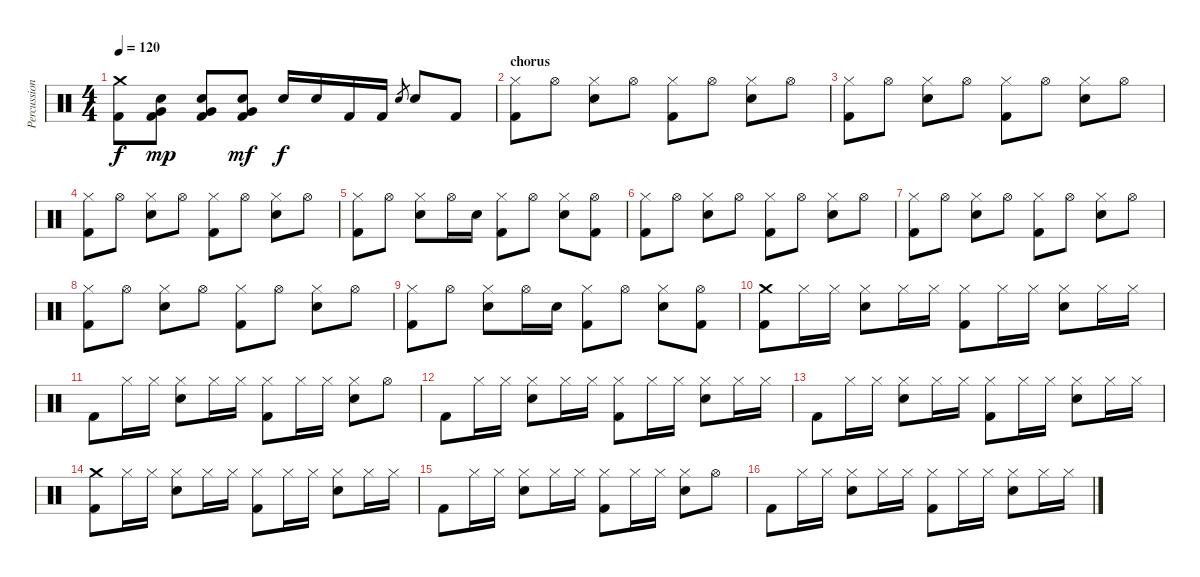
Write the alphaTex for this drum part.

\track ("Percussion" "Percussion") {instrument percussion}
\staff {score}
\articulation defaults
\ts (4 4)
\tempo 120
\clef neutral
\ks c
("Crash medium (hit)"{t} "Kick (hit) 2"{t}).8{dy f} ("Very Low Tom (hit)" "Snare (hit) 2" "Kick (hit) 2").8{dy mp} ("Very Low Tom (hit)" "Snare (hit) 2" "Kick (hit) 2").8 ("Very Low Tom (hit)" "Snare (hit) 2" "Kick (hit) 2").8{dy mf} "Snare (hit) 2".16{dy f} "Snare (hit) 2".16 "Kick (hit) 2".16 "Kick (hit) 2".16 "Snare (hit) 2".8{gr} "Snare (hit) 2".8 "Kick (hit) 2".8 |
\section ("" "chorus")
("Hi-Hat (closed)" "Kick (hit) 2").8 "Hi-Hat (open)".8 ("Hi-Hat (closed)" "Snare (hit) 2").8 "Hi-Hat (open)".8 ("Hi-Hat (closed)" "Kick (hit) 2").8 "Hi-Hat (open)".8 ("Hi-Hat (closed)" "Snare (hit) 2").8 "Hi-Hat (open)".8 |
("Hi-Hat (closed)" "Kick (hit) 2").8 "Hi-Hat (open)".8 ("Hi-Hat (closed)" "Snare (hit) 2").8 "Hi-Hat (open)".8 ("Hi-Hat (closed)" "Kick (hit) 2").8 "Hi-Hat (open)".8 ("Hi-Hat (closed)" "Snare (hit) 2").8 "Hi-Hat (open)".8 |
("Hi-Hat (closed)" "Kick (hit) 2").8 "Hi-Hat (open)".8 ("Hi-Hat (closed)" "Snare (hit) 2").8 "Hi-Hat (open)".8 ("Hi-Hat (closed)" "Kick (hit) 2").8 "Hi-Hat (open)".8 ("Hi-Hat (closed)" "Snare (hit) 2").8 "Hi-Hat (open)".8 |
("Hi-Hat (closed)" "Kick (hit) 2").8 "Hi-Hat (open)".8 ("Hi-Hat (closed)" "Snare (hit) 2").8 "Hi-Hat (open)".16 "Snare (hit) 2".16 ("Hi-Hat (closed)" "Kick (hit) 2").8 "Hi-Hat (open)".8 ("Hi-Hat (closed)" "Snare (hit) 2").8 ("Hi-Hat (open)" "Kick (hit) 2").8 |
("Hi-Hat (closed)" "Kick (hit) 2").8 "Hi-Hat (open)".8 ("Hi-Hat (closed)" "Snare (hit) 2").8 "Hi-Hat (open)".8 ("Hi-Hat (closed)" "Kick (hit) 2").8 "Hi-Hat (open)".8 ("Hi-Hat (closed)" "Snare (hit) 2").8 "Hi-Hat (open)".8 |
("Hi-Hat (closed)" "Kick (hit) 2").8 "Hi-Hat (open)".8 ("Hi-Hat (closed)" "Snare (hit) 2").8 "Hi-Hat (open)".8 ("Hi-Hat (closed)" "Kick (hit) 2").8 "Hi-Hat (open)".8 ("Hi-Hat (closed)" "Snare (hit) 2").8 "Hi-Hat (open)".8 |
("Hi-Hat (closed)" "Kick (hit) 2").8 "Hi-Hat (open)".8 ("Hi-Hat (closed)" "Snare (hit) 2").8 "Hi-Hat (open)".8 ("Hi-Hat (closed)" "Kick (hit) 2").8 "Hi-Hat (open)".8 ("Hi-Hat (closed)" "Snare (hit) 2").8 "Hi-Hat (open)".8 |
("Hi-Hat (closed)" "Kick (hit) 2").8 "Hi-Hat (open)".8 ("Hi-Hat (closed)" "Snare (hit) 2").8 "Hi-Hat (open)".16 "Snare (hit) 2".16 ("Hi-Hat (closed)" "Kick (hit) 2").8 "Hi-Hat (open)".8 ("Hi-Hat (closed)" "Snare (hit) 2").8 ("Hi-Hat (open)" "Kick (hit) 2").8 |
("Crash medium (hit)" "Kick (hit) 2").8 "Hi-Hat (closed)".16 "Hi-Hat (closed)".16 ("Hi-Hat (closed)" "Snare (hit) 2").8 "Hi-Hat (closed)".16 "Hi-Hat (closed)".16 ("Hi-Hat (closed)" "Kick (hit) 2").8 "Hi-Hat (closed)".16 "Hi-Hat (closed)".16 ("Hi-Hat (closed)" "Snare (hit) 2").8 "Hi-Hat (closed)".16 "Hi-Hat (closed)".16 |
"Kick (hit) 2".8 "Hi-Hat (closed)".16 "Hi-Hat (closed)".16 ("Hi-Hat (closed)" "Snare (hit) 2").8 "Hi-Hat (closed)".16 "Hi-Hat (closed)".16 ("Hi-Hat (closed)" "Kick (hit) 2").8 "Hi-Hat (closed)".16 "Hi-Hat (closed)".16 ("Hi-Hat (closed)" "Snare (hit) 2").8 "Hi-Hat (open)".8 |
"Kick (hit) 2".8 "Hi-Hat (closed)".16 "Hi-Hat (closed)".16 ("Hi-Hat (closed)" "Snare (hit) 2").8 "Hi-Hat (closed)".16 "Hi-Hat (closed)".16 ("Hi-Hat (closed)" "Kick (hit) 2").8 "Hi-Hat (closed)".16 "Hi-Hat (closed)".16 ("Hi-Hat (closed)" "Snare (hit) 2").8 "Hi-Hat (closed)".16 "Hi-Hat (closed)".16 |
"Kick (hit) 2".8 "Hi-Hat (closed)".16 "Hi-Hat (closed)".16 ("Hi-Hat (closed)" "Snare (hit) 2").8 "Hi-Hat (closed)".16 "Hi-Hat (closed)".16 ("Hi-Hat (closed)" "Kick (hit) 2").8 "Hi-Hat (closed)".16 "Hi-Hat (closed)".16 ("Hi-Hat (closed)" "Snare (hit) 2").8 "Hi-Hat (closed)".16 "Hi-Hat (closed)".16 |
("Crash medium (hit)" "Kick (hit) 2").8 "Hi-Hat (closed)".16 "Hi-Hat (closed)".16 ("Hi-Hat (closed)" "Snare (hit) 2").8 "Hi-Hat (closed)".16 "Hi-Hat (closed)".16 ("Hi-Hat (closed)" "Kick (hit) 2").8 "Hi-Hat (closed)".16 "Hi-Hat (closed)".16 ("Hi-Hat (closed)" "Snare (hit) 2").8 "Hi-Hat (closed)".16 "Hi-Hat (closed)".16 |
"Kick (hit) 2".8 "Hi-Hat (closed)".16 "Hi-Hat (closed)".16 ("Hi-Hat (closed)" "Snare (hit) 2").8 "Hi-Hat (closed)".16 "Hi-Hat (closed)".16 ("Hi-Hat (closed)" "Kick (hit) 2").8 "Hi-Hat (closed)".16 "Hi-Hat (closed)".16 ("Hi-Hat (closed)" "Snare (hit) 2").8 "Hi-Hat (open)".8 |
"Kick (hit) 2".8 "Hi-Hat (closed)".16 "Hi-Hat (closed)".16 ("Hi-Hat (closed)" "Snare (hit) 2").8 "Hi-Hat (closed)".16 "Hi-Hat (closed)".16 ("Hi-Hat (closed)" "Kick (hit) 2").8 "Hi-Hat (closed)".16 "Hi-Hat (closed)".16 ("Hi-Hat (closed)" "Snare (hit) 2").8 "Hi-Hat (closed)".16 "Hi-Hat (closed)".16
